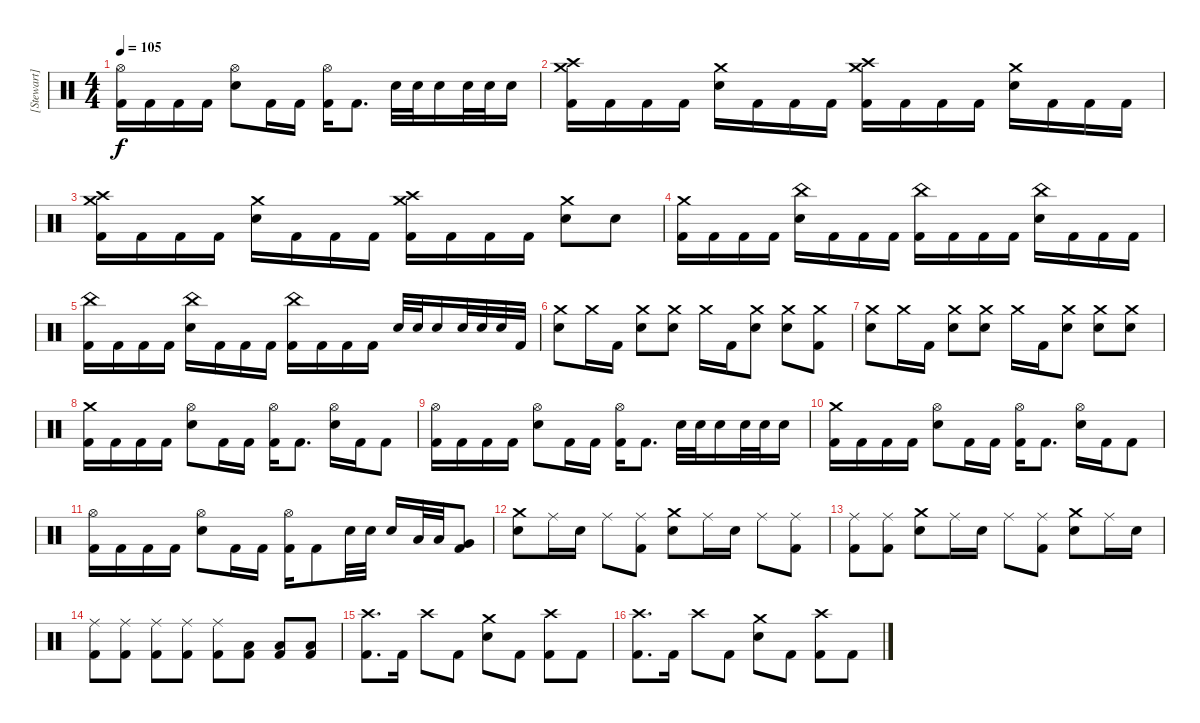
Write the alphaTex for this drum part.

\track ("[Stewart]" "[Stewart]") {instrument percussion}
\staff {score}
\articulation defaults
\ts (4 4)
\tempo 105
\clef neutral
\ks c
("Hi-Hat (open)" "Kick (hit) 2").16{dy f} "Kick (hit) 2".16 "Kick (hit) 2".16 "Kick (hit) 2".16 ("Hi-Hat (open)" "Electric Snare (hit)").8 "Kick (hit) 2".16 "Kick (hit) 2".16 ("Hi-Hat (open)" "Kick (hit) 2").16 "Kick (hit) 2".8{d} "Electric Snare (hit)".32 "Electric Snare (hit)".32 "Electric Snare (hit)".16 "Electric Snare (hit)".32 "Electric Snare (hit)".32 "Electric Snare (hit)".16 |
("Crash medium (hit)" "Crash high (hit)" "Kick (hit) 2").16 "Kick (hit) 2".16 "Kick (hit) 2".16 "Kick (hit) 2".16 ("Crash medium (hit)" "Electric Snare (hit)").16 "Kick (hit) 2".16 "Kick (hit) 2".16 "Kick (hit) 2".16 ("Crash medium (hit)" "Crash high (hit)" "Kick (hit) 2").16 "Kick (hit) 2".16 "Kick (hit) 2".16 "Kick (hit) 2".16 ("Crash medium (hit)" "Electric Snare (hit)").16 "Kick (hit) 2".16 "Kick (hit) 2".16 "Kick (hit) 2".16 |
("Crash medium (hit)" "Crash high (hit)" "Kick (hit) 2").16 "Kick (hit) 2".16 "Kick (hit) 2".16 "Kick (hit) 2".16 ("Crash medium (hit)" "Electric Snare (hit)").16 "Kick (hit) 2".16 "Kick (hit) 2".16 "Kick (hit) 2".16 ("Crash medium (hit)" "Crash high (hit)" "Kick (hit) 2").16 "Kick (hit) 2".16 "Kick (hit) 2".16 "Kick (hit) 2".16 ("Crash medium (hit)" "Electric Snare (hit)").8 "Electric Snare (hit)".8 |
("Crash medium (hit)" "Kick (hit) 2").16 "Kick (hit) 2".16 "Kick (hit) 2".16 "Kick (hit) 2".16 ("China (hit)" "Electric Snare (hit)").16 "Kick (hit) 2".16 "Kick (hit) 2".16 "Kick (hit) 2".16 ("China (hit)" "Kick (hit) 2").16 "Kick (hit) 2".16 "Kick (hit) 2".16 "Kick (hit) 2".16 ("China (hit)" "Electric Snare (hit)").16 "Kick (hit) 2".16 "Kick (hit) 2".16 "Kick (hit) 2".16 |
("China (hit)" "Kick (hit) 2").16 "Kick (hit) 2".16 "Kick (hit) 2".16 "Kick (hit) 2".16 ("China (hit)" "Electric Snare (hit)").16 "Kick (hit) 2".16 "Kick (hit) 2".16 "Kick (hit) 2".16 ("China (hit)" "Kick (hit) 2").16 "Kick (hit) 2".16 "Kick (hit) 2".16 "Kick (hit) 2".16 "Electric Snare (hit)".32 "Electric Snare (hit)".32 "Electric Snare (hit)".16 "Electric Snare (hit)".32 "Electric Snare (hit)".32 "Electric Snare (hit)".32 "Kick (hit) 2".32 |
("Crash medium (hit)" "Electric Snare (hit)").8 "Crash medium (hit)".16 "Kick (hit) 2".16 ("Crash medium (hit)" "Electric Snare (hit)").8 ("Crash medium (hit)" "Electric Snare (hit)").8 "Crash medium (hit)".16 "Kick (hit) 2".16 ("Crash medium (hit)" "Electric Snare (hit)").8 ("Crash medium (hit)" "Electric Snare (hit)").8 ("Crash medium (hit)" "Kick (hit) 2").8 |
("Crash medium (hit)" "Electric Snare (hit)").8 "Crash medium (hit)".16 "Kick (hit) 2".16 ("Crash medium (hit)" "Electric Snare (hit)").8 ("Crash medium (hit)" "Electric Snare (hit)").8 "Crash medium (hit)".16 "Kick (hit) 2".16 ("Crash medium (hit)" "Electric Snare (hit)").8 ("Crash medium (hit)" "Electric Snare (hit)").8 ("Crash medium (hit)" "Electric Snare (hit)").8 |
("Crash medium (hit)" "Kick (hit) 2").16 "Kick (hit) 2".16 "Kick (hit) 2".16 "Kick (hit) 2".16 ("Hi-Hat (open)" "Electric Snare (hit)").8 "Kick (hit) 2".16 "Kick (hit) 2".16 ("Hi-Hat (open)" "Kick (hit) 2").16 "Kick (hit) 2".8{d} ("Hi-Hat (open)" "Electric Snare (hit)").16 "Kick (hit) 2".16 "Kick (hit) 2".8 |
("Hi-Hat (open)" "Kick (hit) 2").16 "Kick (hit) 2".16 "Kick (hit) 2".16 "Kick (hit) 2".16 ("Hi-Hat (open)" "Electric Snare (hit)").8 "Kick (hit) 2".16 "Kick (hit) 2".16 ("Hi-Hat (open)" "Kick (hit) 2").16 "Kick (hit) 2".8{d} "Electric Snare (hit)".32 "Electric Snare (hit)".32 "Electric Snare (hit)".16 "Electric Snare (hit)".32 "Electric Snare (hit)".32 "Electric Snare (hit)".16 |
("Crash medium (hit)" "Kick (hit) 2").16 "Kick (hit) 2".16 "Kick (hit) 2".16 "Kick (hit) 2".16 ("Hi-Hat (open)" "Electric Snare (hit)").8 "Kick (hit) 2".16 "Kick (hit) 2".16 ("Hi-Hat (open)" "Kick (hit) 2").16 "Kick (hit) 2".8{d} ("Hi-Hat (open)" "Electric Snare (hit)").16 "Kick (hit) 2".16 "Kick (hit) 2".8 |
("Hi-Hat (open)" "Kick (hit) 2").16 "Kick (hit) 2".16 "Kick (hit) 2".16 "Kick (hit) 2".16 ("Hi-Hat (open)" "Electric Snare (hit)").8 "Kick (hit) 2".16 "Kick (hit) 2".16 ("Hi-Hat (open)" "Kick (hit) 2").16 "Kick (hit) 2".8 "Electric Snare (hit)".32 "Electric Snare (hit)".32 "Electric Snare (hit)".16 "Low Tom (hit)".32 "Low Tom (hit)".32 ("Very Low Tom (hit)" "Kick (hit) 2").8 |
("Crash medium (hit)" "Electric Snare (hit)").8 "Ride (middle)".16 "Electric Snare (hit)".16 "Ride (middle)".8 ("Ride (middle)" "Kick (hit) 2").8 ("Crash medium (hit)" "Electric Snare (hit)").8 "Ride (middle)".16 "Electric Snare (hit)".16 "Ride (middle)".8 ("Ride (middle)" "Kick (hit) 2").8 |
("Ride (middle)" "Kick (hit) 2").8 ("Ride (middle)" "Kick (hit) 2").8 ("Crash medium (hit)" "Electric Snare (hit)").8 "Ride (middle)".16 "Electric Snare (hit)".16 "Ride (middle)".8 ("Ride (middle)" "Kick (hit) 2").8 ("Crash medium (hit)" "Electric Snare (hit)").8 "Ride (middle)".16 "Electric Snare (hit)".16 |
("Ride (middle)" "Kick (hit) 2").8 ("Ride (middle)" "Kick (hit) 2").8 ("Ride (middle)" "Kick (hit) 2").8 ("Ride (middle)" "Kick (hit) 2").8 ("Ride (middle)" "Kick (hit) 2").8 ("Low Tom (hit)" "Kick (hit) 2").8 ("Low Tom (hit)" "Kick (hit) 2").8 ("Low Tom (hit)" "Kick (hit) 2").8 |
("Crash high (hit)" "Kick (hit) 2").8{d} "Kick (hit) 2".16 "Crash high (hit)".8 "Kick (hit) 2".8 ("Crash medium (hit)" "Electric Snare (hit)").8 "Kick (hit) 2".8 ("Crash high (hit)" "Kick (hit) 2").8 "Kick (hit) 2".8 |
("Crash high (hit)" "Kick (hit) 2").8{d} "Kick (hit) 2".16 "Crash high (hit)".8 "Kick (hit) 2".8 ("Crash medium (hit)" "Electric Snare (hit)").8 "Kick (hit) 2".8 ("Crash high (hit)" "Kick (hit) 2").8 "Kick (hit) 2".8
